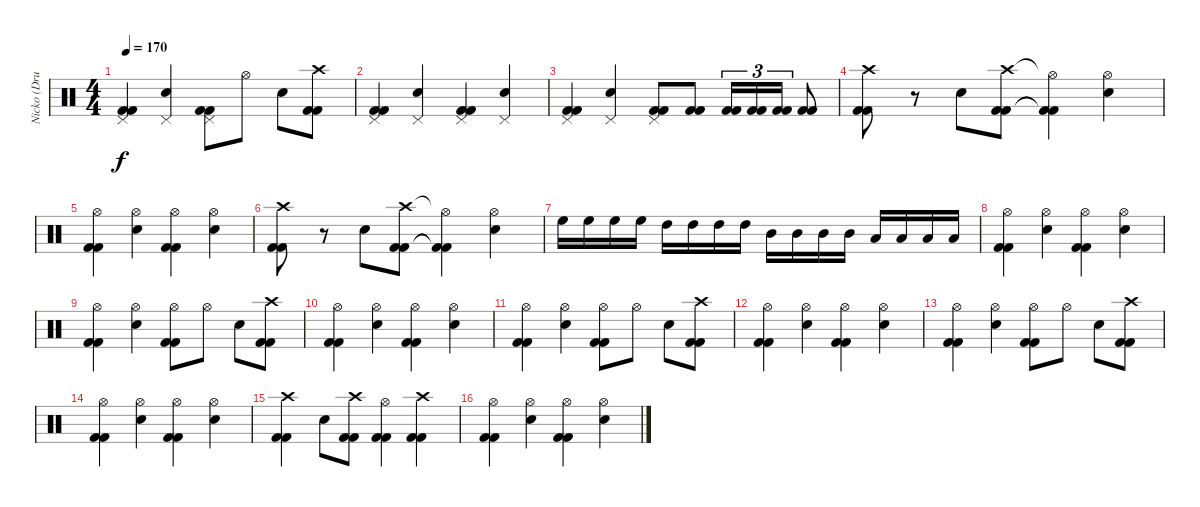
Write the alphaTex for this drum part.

\track ("Nicko (Drums)" "Nicko (Dru") {instrument percussion}
\staff {score}
\articulation defaults
\ts (4 4)
\tempo 170
\clef neutral
\ks c
("Pedal Hi-Hat (hit)" "Kick (hit) 2" "Kick (hit) 2").4{dy f} ("Pedal Hi-Hat (hit)" "Snare (hit) 2").4 ("Pedal Hi-Hat (hit)" "Kick (hit) 2" "Kick (hit) 2").8 "Hi-Hat (open)".8 "Snare (hit) 2".8 ("Crash high (hit)" "Kick (hit) 2" "Kick (hit) 2").8 |
("Pedal Hi-Hat (hit)" "Kick (hit) 2" "Kick (hit) 2").4 ("Pedal Hi-Hat (hit)" "Snare (hit) 2").4 ("Pedal Hi-Hat (hit)" "Kick (hit) 2" "Kick (hit) 2").4 ("Pedal Hi-Hat (hit)" "Snare (hit) 2").4 |
("Pedal Hi-Hat (hit)" "Kick (hit) 2" "Kick (hit) 2").4 ("Pedal Hi-Hat (hit)" "Snare (hit) 2").4 ("Pedal Hi-Hat (hit)" "Kick (hit) 2" "Kick (hit) 2").8 ("Kick (hit) 2" "Kick (hit) 2").8 ("Kick (hit) 2" "Kick (hit) 2").16{tu (3 2)} ("Kick (hit) 2" "Kick (hit) 2").16{tu (3 2)} ("Kick (hit) 2" "Kick (hit) 2").16{tu (3 2)} ("Kick (hit) 2" "Kick (hit) 2").8 |
("Crash high (hit)" "Kick (hit) 2" "Kick (hit) 2").8 r.8 "Snare (hit) 2".8 ("Crash high (hit)" "Kick (hit) 2" "Kick (hit) 2").8 ("Hi-Hat (open)"{t} "Kick (hit) 2"{t} "Kick (hit) 2"{t}).4 ("Hi-Hat (open)" "Snare (hit) 2").4 |
("Hi-Hat (open)" "Kick (hit) 2" "Kick (hit) 2").4 ("Hi-Hat (open)" "Snare (hit) 2").4 ("Hi-Hat (open)" "Kick (hit) 2" "Kick (hit) 2").4 ("Hi-Hat (open)" "Snare (hit) 2").4 |
("Crash high (hit)" "Kick (hit) 2" "Kick (hit) 2").8 r.8 "Snare (hit) 2".8 ("Crash high (hit)" "Kick (hit) 2" "Kick (hit) 2").8 ("Hi-Hat (open)"{t} "Kick (hit) 2"{t} "Kick (hit) 2"{t}).4 ("Hi-Hat (open)" "Snare (hit) 2").4 |
"High Floor Tom (hit)".16 "High Floor Tom (hit)".16 "High Floor Tom (hit)".16 "High Floor Tom (hit)".16 "High Tom (hit)".16 "High Tom (hit)".16 "High Tom (hit)".16 "High Tom (hit)".16 "Mid Tom (hit)".16 "Mid Tom (hit)".16 "Mid Tom (hit)".16 "Mid Tom (hit)".16 "Low Tom (hit)".16 "Low Tom (hit)".16 "Low Tom (hit)".16 "Low Tom (hit)".16 |
("Hi-Hat (open)" "Kick (hit) 2" "Kick (hit) 2").4 ("Hi-Hat (open)" "Snare (hit) 2").4 ("Hi-Hat (open)" "Kick (hit) 2" "Kick (hit) 2").4 ("Hi-Hat (open)" "Snare (hit) 2").4 |
("Hi-Hat (open)" "Kick (hit) 2" "Kick (hit) 2").4 ("Hi-Hat (open)" "Snare (hit) 2").4 ("Hi-Hat (open)" "Kick (hit) 2" "Kick (hit) 2").8 "Hi-Hat (open)".8 "Snare (hit) 2".8 ("Crash high (hit)" "Kick (hit) 2" "Kick (hit) 2").8 |
("Hi-Hat (open)" "Kick (hit) 2" "Kick (hit) 2").4 ("Hi-Hat (open)" "Snare (hit) 2").4 ("Hi-Hat (open)" "Kick (hit) 2" "Kick (hit) 2").4 ("Hi-Hat (open)" "Snare (hit) 2").4 |
("Hi-Hat (open)" "Kick (hit) 2" "Kick (hit) 2").4 ("Hi-Hat (open)" "Snare (hit) 2").4 ("Hi-Hat (open)" "Kick (hit) 2" "Kick (hit) 2").8 "Hi-Hat (open)".8 "Snare (hit) 2".8 ("Crash high (hit)" "Kick (hit) 2" "Kick (hit) 2").8 |
("Hi-Hat (open)" "Kick (hit) 2" "Kick (hit) 2").4 ("Hi-Hat (open)" "Snare (hit) 2").4 ("Hi-Hat (open)" "Kick (hit) 2" "Kick (hit) 2").4 ("Hi-Hat (open)" "Snare (hit) 2").4 |
("Hi-Hat (open)" "Kick (hit) 2" "Kick (hit) 2").4 ("Hi-Hat (open)" "Snare (hit) 2").4 ("Hi-Hat (open)" "Kick (hit) 2" "Kick (hit) 2").8 "Hi-Hat (open)".8 "Snare (hit) 2".8 ("Crash high (hit)" "Kick (hit) 2" "Kick (hit) 2").8 |
("Hi-Hat (open)" "Kick (hit) 2" "Kick (hit) 2").4 ("Hi-Hat (open)" "Snare (hit) 2").4 ("Hi-Hat (open)" "Kick (hit) 2" "Kick (hit) 2").4 ("Hi-Hat (open)" "Snare (hit) 2").4 |
("Crash high (hit)" "Kick (hit) 2" "Kick (hit) 2").4 "Snare (hit) 2".8 ("Crash high (hit)" "Kick (hit) 2" "Kick (hit) 2").8 ("Hi-Hat (open)" "Kick (hit) 2" "Kick (hit) 2").4 ("Crash high (hit)" "Kick (hit) 2" "Kick (hit) 2").4 |
("Hi-Hat (open)" "Kick (hit) 2" "Kick (hit) 2").4 ("Hi-Hat (open)" "Snare (hit) 2").4 ("Hi-Hat (open)" "Kick (hit) 2" "Kick (hit) 2").4 ("Hi-Hat (open)" "Snare (hit) 2").4
